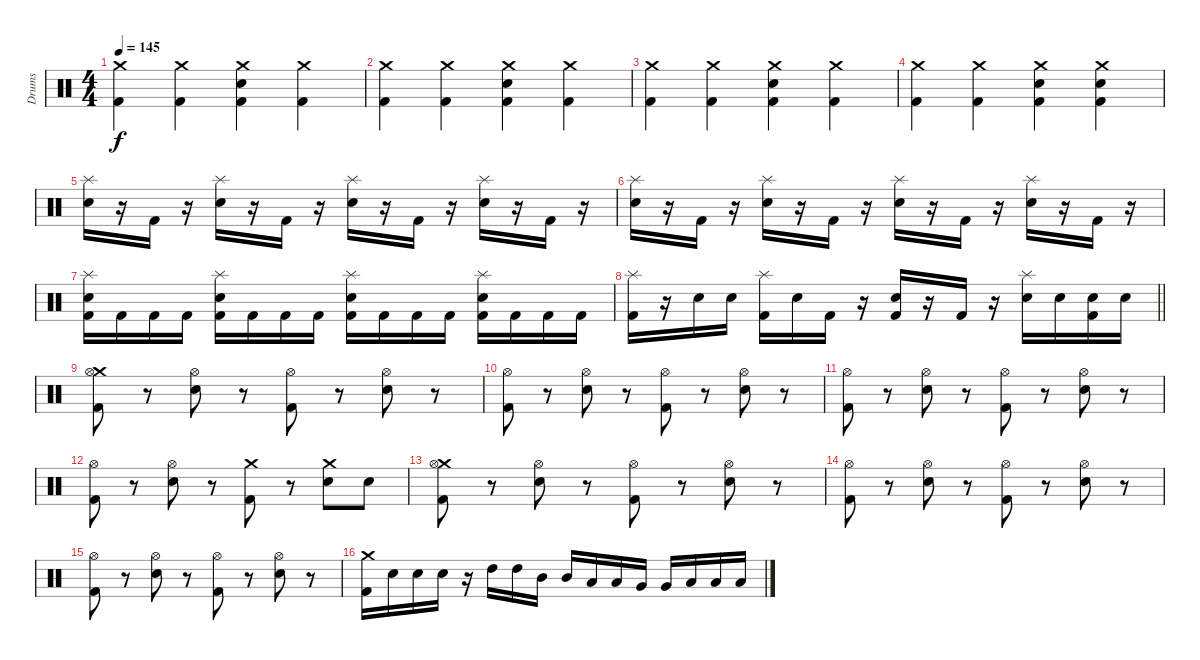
\track ("Drums" "Drums") {instrument percussion}
\staff {score}
\articulation defaults
\ts (4 4)
\tempo 145
\clef neutral
\ks c
("Crash medium (hit)" "Kick (hit) 2").4{dy f} ("Crash medium (hit)" "Kick (hit) 2").4 ("Crash medium (hit)" "Electric Snare (hit)" "Kick (hit) 2").4 ("Crash medium (hit)" "Kick (hit) 2").4 |
("Crash medium (hit)" "Kick (hit) 2").4 ("Crash medium (hit)" "Kick (hit) 2").4 ("Crash medium (hit)" "Electric Snare (hit)" "Kick (hit) 2").4 ("Crash medium (hit)" "Kick (hit) 2").4 |
("Crash medium (hit)" "Kick (hit) 2").4 ("Crash medium (hit)" "Kick (hit) 2").4 ("Crash medium (hit)" "Electric Snare (hit)" "Kick (hit) 2").4 ("Crash medium (hit)" "Kick (hit) 2").4 |
("Crash medium (hit)" "Kick (hit) 2").4 ("Crash medium (hit)" "Kick (hit) 2").4 ("Crash medium (hit)" "Electric Snare (hit)" "Kick (hit) 2").4 ("Crash medium (hit)" "Electric Snare (hit)" "Kick (hit) 2").4 |
("Splash (hit)" "Electric Snare (hit)").16 r.16 "Kick (hit) 2".16 r.16 ("Splash (hit)" "Electric Snare (hit)").16 r.16 "Kick (hit) 2".16 r.16 ("Splash (hit)" "Electric Snare (hit)").16 r.16 "Kick (hit) 2".16 r.16 ("Splash (hit)" "Electric Snare (hit)").16 r.16 "Kick (hit) 2".16 r.16 |
("Splash (hit)" "Electric Snare (hit)").16 r.16 "Kick (hit) 2".16 r.16 ("Splash (hit)" "Electric Snare (hit)").16 r.16 "Kick (hit) 2".16 r.16 ("Splash (hit)" "Electric Snare (hit)").16 r.16 "Kick (hit) 2".16 r.16 ("Splash (hit)" "Electric Snare (hit)").16 r.16 "Kick (hit) 2".16 r.16 |
("Splash (hit)" "Electric Snare (hit)" "Kick (hit) 2").16 "Kick (hit) 2".16 "Kick (hit) 2".16 "Kick (hit) 2".16 ("Splash (hit)" "Electric Snare (hit)" "Kick (hit) 2").16 "Kick (hit) 2".16 "Kick (hit) 2".16 "Kick (hit) 2".16 ("Splash (hit)" "Electric Snare (hit)" "Kick (hit) 2").16 "Kick (hit) 2".16 "Kick (hit) 2".16 "Kick (hit) 2".16 ("Splash (hit)" "Electric Snare (hit)" "Kick (hit) 2").16 "Kick (hit) 2".16 "Kick (hit) 2".16 "Kick (hit) 2".16 |
\barLineRight lightlight
("Splash (hit)" "Kick (hit) 2").16 r.16 "Electric Snare (hit)".16 "Electric Snare (hit)".16 ("Splash (hit)" "Kick (hit) 2").16 "Electric Snare (hit)".16 "Kick (hit) 2".16 r.16 ("Electric Snare (hit)" "Kick (hit) 2").16 r.16 "Kick (hit) 2".16 r.16 ("Splash (hit)" "Electric Snare (hit)").16 "Electric Snare (hit)".16 ("Electric Snare (hit)" "Kick (hit) 2").16 "Electric Snare (hit)".16 |
("Crash medium (hit)" "Hi-Hat (open)" "Kick (hit) 2").8 r.8 ("Hi-Hat (open)" "Electric Snare (hit)").8 r.8 ("Hi-Hat (open)" "Kick (hit) 2").8 r.8 ("Hi-Hat (open)" "Electric Snare (hit)").8 r.8 |
("Hi-Hat (open)" "Kick (hit) 2").8 r.8 ("Hi-Hat (open)" "Electric Snare (hit)").8 r.8 ("Hi-Hat (open)" "Kick (hit) 2").8 r.8 ("Hi-Hat (open)" "Electric Snare (hit)").8 r.8 |
("Hi-Hat (open)" "Kick (hit) 2").8 r.8 ("Hi-Hat (open)" "Electric Snare (hit)").8 r.8 ("Hi-Hat (open)" "Kick (hit) 2").8 r.8 ("Hi-Hat (open)" "Electric Snare (hit)").8 r.8 |
("Hi-Hat (open)" "Kick (hit) 2").8 r.8 ("Hi-Hat (open)" "Electric Snare (hit)").8 r.8 ("Crash medium (hit)" "Kick (hit) 2").8 r.8 ("Crash medium (hit)" "Electric Snare (hit)").8 "Electric Snare (hit)".8 |
("Crash medium (hit)" "Hi-Hat (open)" "Kick (hit) 2").8 r.8 ("Hi-Hat (open)" "Electric Snare (hit)").8 r.8 ("Hi-Hat (open)" "Kick (hit) 2").8 r.8 ("Hi-Hat (open)" "Electric Snare (hit)").8 r.8 |
("Hi-Hat (open)" "Kick (hit) 2").8 r.8 ("Hi-Hat (open)" "Electric Snare (hit)").8 r.8 ("Hi-Hat (open)" "Kick (hit) 2").8 r.8 ("Hi-Hat (open)" "Electric Snare (hit)").8 r.8 |
("Hi-Hat (open)" "Kick (hit) 2").8 r.8 ("Hi-Hat (open)" "Electric Snare (hit)").8 r.8 ("Hi-Hat (open)" "Kick (hit) 2").8 r.8 ("Hi-Hat (open)" "Electric Snare (hit)").8 r.8 |
("Crash medium (hit)" "Kick (hit) 2").16 "Electric Snare (hit)".16 "Electric Snare (hit)".16 "Electric Snare (hit)".16 r.16 "High Tom (hit)".16 "High Tom (hit)".16 "Mid Tom (hit)".16 "Mid Tom (hit)".16 "Low Tom (hit)".16 "Low Tom (hit)".16 "Very Low Tom (hit)".16 "Very Low Tom (hit)".16 "Low Floor Tom (hit)".16 "Low Floor Tom (hit)".16 "Low Floor Tom (hit)".16
